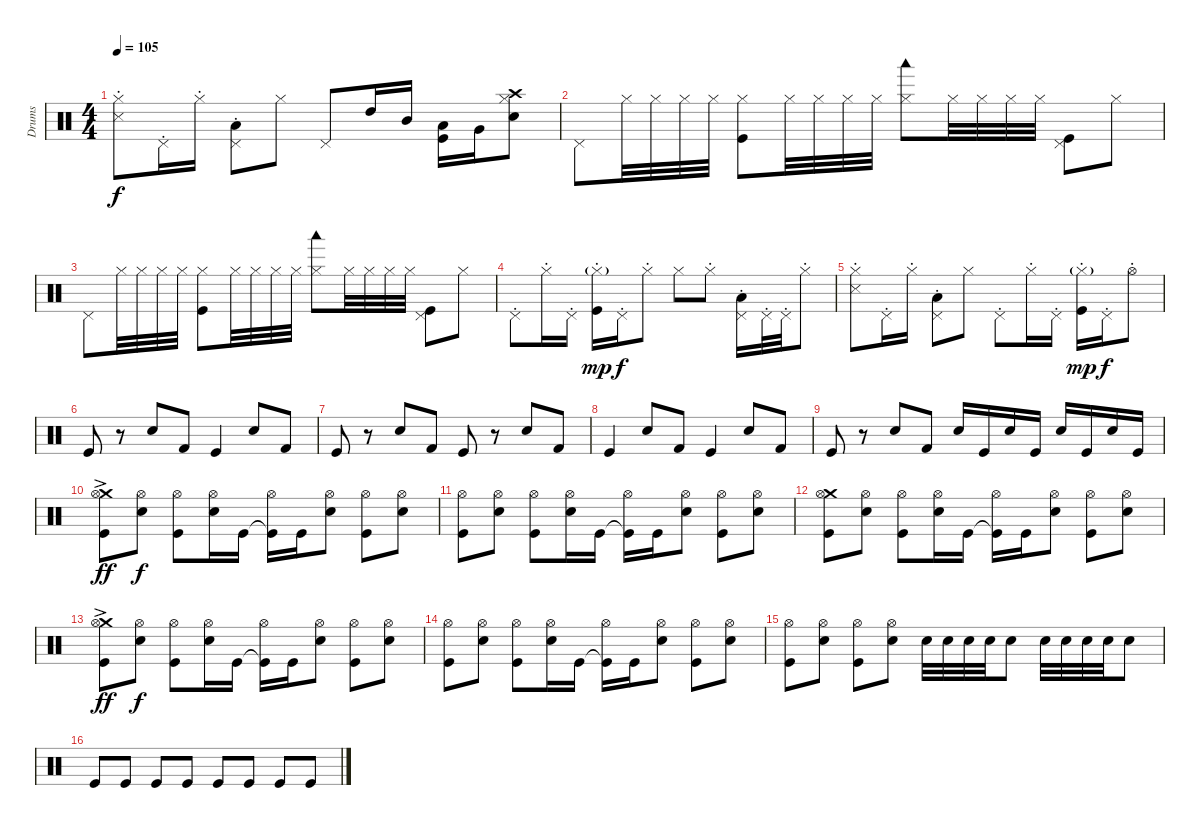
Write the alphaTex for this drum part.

\track ("Drums" "Drums") {instrument percussion}
\staff {score}
\articulation defaults
\ts (4 4)
\tempo 105
\clef neutral
\ks c
("Hi-Hat (closed)"{st} "Snare (side stick) 3"{st}).8{dy f} "Pedal Hi-Hat (hit)"{st}.16 "Hi-Hat (closed)"{st}.16 ("Pedal Hi-Hat (hit)"{st} "Low Tom (hit)").8 "Hi-Hat (closed)".8 "Pedal Hi-Hat (hit)".8 "High Tom (hit)".16 "Mid Tom (hit)".16 ("Low Tom (hit)" "Kick (hit)").16 "Very Low Tom (hit)".16 ("Electric Snare (hit)" "Hi-Hat (closed)" "Crash high (hit)").8 |
"Pedal Hi-Hat (hit)".8 "Hi-Hat (closed)".32 "Hi-Hat (closed)".32 "Hi-Hat (closed)".32 "Hi-Hat (closed)".32 ("Hi-Hat (closed)" "Kick (hit)").8 "Hi-Hat (closed)".32 "Hi-Hat (closed)".32 "Hi-Hat (closed)".32 "Hi-Hat (closed)".32 ("Hi-Hat (closed)" "Woodblock low (hit)").8 "Hi-Hat (closed)".32 "Hi-Hat (closed)".32 "Hi-Hat (closed)".32 "Hi-Hat (closed)".32 ("Pedal Hi-Hat (hit)" "Kick (hit)").8 "Hi-Hat (closed)".8 |
"Pedal Hi-Hat (hit)".8 "Hi-Hat (closed)".32 "Hi-Hat (closed)".32 "Hi-Hat (closed)".32 "Hi-Hat (closed)".32 ("Hi-Hat (closed)" "Kick (hit)").8 "Hi-Hat (closed)".32 "Hi-Hat (closed)".32 "Hi-Hat (closed)".32 "Hi-Hat (closed)".32 ("Hi-Hat (closed)" "Woodblock low (hit)").8 "Hi-Hat (closed)".32 "Hi-Hat (closed)".32 "Hi-Hat (closed)".32 "Hi-Hat (closed)".32 ("Pedal Hi-Hat (hit)" "Kick (hit)").8 "Hi-Hat (closed)".8 |
"Pedal Hi-Hat (hit)"{st}.8 "Hi-Hat (closed)"{st}.16 "Pedal Hi-Hat (hit)"{st}.16 ("Hi-Hat (closed)"{g st} "Kick (hit)").16{dy mp} "Pedal Hi-Hat (hit)"{st}.16{dy f} "Hi-Hat (closed)"{st}.8 "Hi-Hat (closed)".8 "Hi-Hat (closed)"{st}.8 ("Pedal Hi-Hat (hit)"{st} "Low Tom (hit)").16 "Pedal Hi-Hat (hit)"{st}.32 "Pedal Hi-Hat (hit)"{st}.32 "Hi-Hat (closed)"{st}.8 |
("Hi-Hat (closed)"{st} "Snare (side stick) 3"{st}).8 "Pedal Hi-Hat (hit)"{st}.16 "Hi-Hat (closed)"{st}.16 ("Pedal Hi-Hat (hit)"{st} "Low Tom (hit)").8 "Hi-Hat (closed)".8 "Pedal Hi-Hat (hit)"{st}.8 "Hi-Hat (closed)"{st}.16 "Pedal Hi-Hat (hit)"{st}.16 ("Hi-Hat (closed)"{g st} "Kick (hit)").16{dy mp} "Pedal Hi-Hat (hit)"{st}.16{dy f} "Hi-Hat (open)"{st}.8 |
"Kick (hit)".8 r.8 "Electric Snare (hit)".8 "Kick (hit) 2".8 "Kick (hit)".4 "Electric Snare (hit)".8 "Kick (hit) 2".8 |
"Kick (hit)".8 r.8 "Electric Snare (hit)".8 "Kick (hit) 2".8 "Kick (hit)".8 r.8 "Electric Snare (hit)".8 "Kick (hit) 2".8 |
"Kick (hit)".4 "Electric Snare (hit)".8 "Kick (hit) 2".8 "Kick (hit)".4 "Electric Snare (hit)".8 "Kick (hit) 2".8 |
"Kick (hit)".8 r.8 "Electric Snare (hit)".8 "Kick (hit) 2".8 "Electric Snare (hit)".16 "Kick (hit)".16 "Electric Snare (hit)".16 "Kick (hit)".16 "Electric Snare (hit)".16 "Kick (hit)".16 "Electric Snare (hit)".16 "Kick (hit)".16 |
("Kick (hit)" "Crash medium (hit)"{ac} "Hi-Hat (open)").8{dy ff} ("Electric Snare (hit)" "Hi-Hat (open)").8{dy f} ("Kick (hit)" "Hi-Hat (open)").8 ("Electric Snare (hit)" "Hi-Hat (open)").16 "Kick (hit)".16 ("Kick (hit)"{t} "Hi-Hat (open)").16 "Kick (hit)".16 ("Electric Snare (hit)" "Hi-Hat (open)").8 ("Kick (hit)" "Hi-Hat (open)").8 ("Electric Snare (hit)" "Hi-Hat (open)").8 |
("Kick (hit)" "Hi-Hat (open)").8 ("Electric Snare (hit)" "Hi-Hat (open)").8 ("Kick (hit)" "Hi-Hat (open)").8 ("Electric Snare (hit)" "Hi-Hat (open)").16 "Kick (hit)".16 ("Kick (hit)"{t} "Hi-Hat (open)").16 "Kick (hit)".16 ("Electric Snare (hit)" "Hi-Hat (open)").8 ("Kick (hit)" "Hi-Hat (open)").8 ("Electric Snare (hit)" "Hi-Hat (open)").8 |
("Kick (hit)" "Crash medium (hit)" "Hi-Hat (open)").8 ("Electric Snare (hit)" "Hi-Hat (open)").8 ("Kick (hit)" "Hi-Hat (open)").8 ("Electric Snare (hit)" "Hi-Hat (open)").16 "Kick (hit)".16 ("Kick (hit)"{t} "Hi-Hat (open)").16 "Kick (hit)".16 ("Electric Snare (hit)" "Hi-Hat (open)").8 ("Kick (hit)" "Hi-Hat (open)").8 ("Electric Snare (hit)" "Hi-Hat (open)").8 |
("Kick (hit)" "Crash medium (hit)"{ac} "Hi-Hat (open)").8{dy ff} ("Electric Snare (hit)" "Hi-Hat (open)").8{dy f} ("Kick (hit)" "Hi-Hat (open)").8 ("Electric Snare (hit)" "Hi-Hat (open)").16 "Kick (hit)".16 ("Kick (hit)"{t} "Hi-Hat (open)").16 "Kick (hit)".16 ("Electric Snare (hit)" "Hi-Hat (open)").8 ("Kick (hit)" "Hi-Hat (open)").8 ("Electric Snare (hit)" "Hi-Hat (open)").8 |
("Kick (hit)" "Hi-Hat (open)").8 ("Electric Snare (hit)" "Hi-Hat (open)").8 ("Kick (hit)" "Hi-Hat (open)").8 ("Electric Snare (hit)" "Hi-Hat (open)").16 "Kick (hit)".16 ("Kick (hit)"{t} "Hi-Hat (open)").16 "Kick (hit)".16 ("Electric Snare (hit)" "Hi-Hat (open)").8 ("Kick (hit)" "Hi-Hat (open)").8 ("Electric Snare (hit)" "Hi-Hat (open)").8 |
("Kick (hit)" "Hi-Hat (open)").8 ("Electric Snare (hit)" "Hi-Hat (open)").8 ("Kick (hit)" "Hi-Hat (open)").8 ("Electric Snare (hit)" "Hi-Hat (open)").8 "Electric Snare (hit)".32 "Electric Snare (hit)".32 "Electric Snare (hit)".32 "Electric Snare (hit)".32 "Electric Snare (hit)".8 "Electric Snare (hit)".32 "Electric Snare (hit)".32 "Electric Snare (hit)".32 "Electric Snare (hit)".32 "Electric Snare (hit)".8 |
"Kick (hit)".8 "Kick (hit)".8 "Kick (hit)".8 "Kick (hit)".8 "Kick (hit)".8 "Kick (hit)".8 "Kick (hit)".8 "Kick (hit)".8
